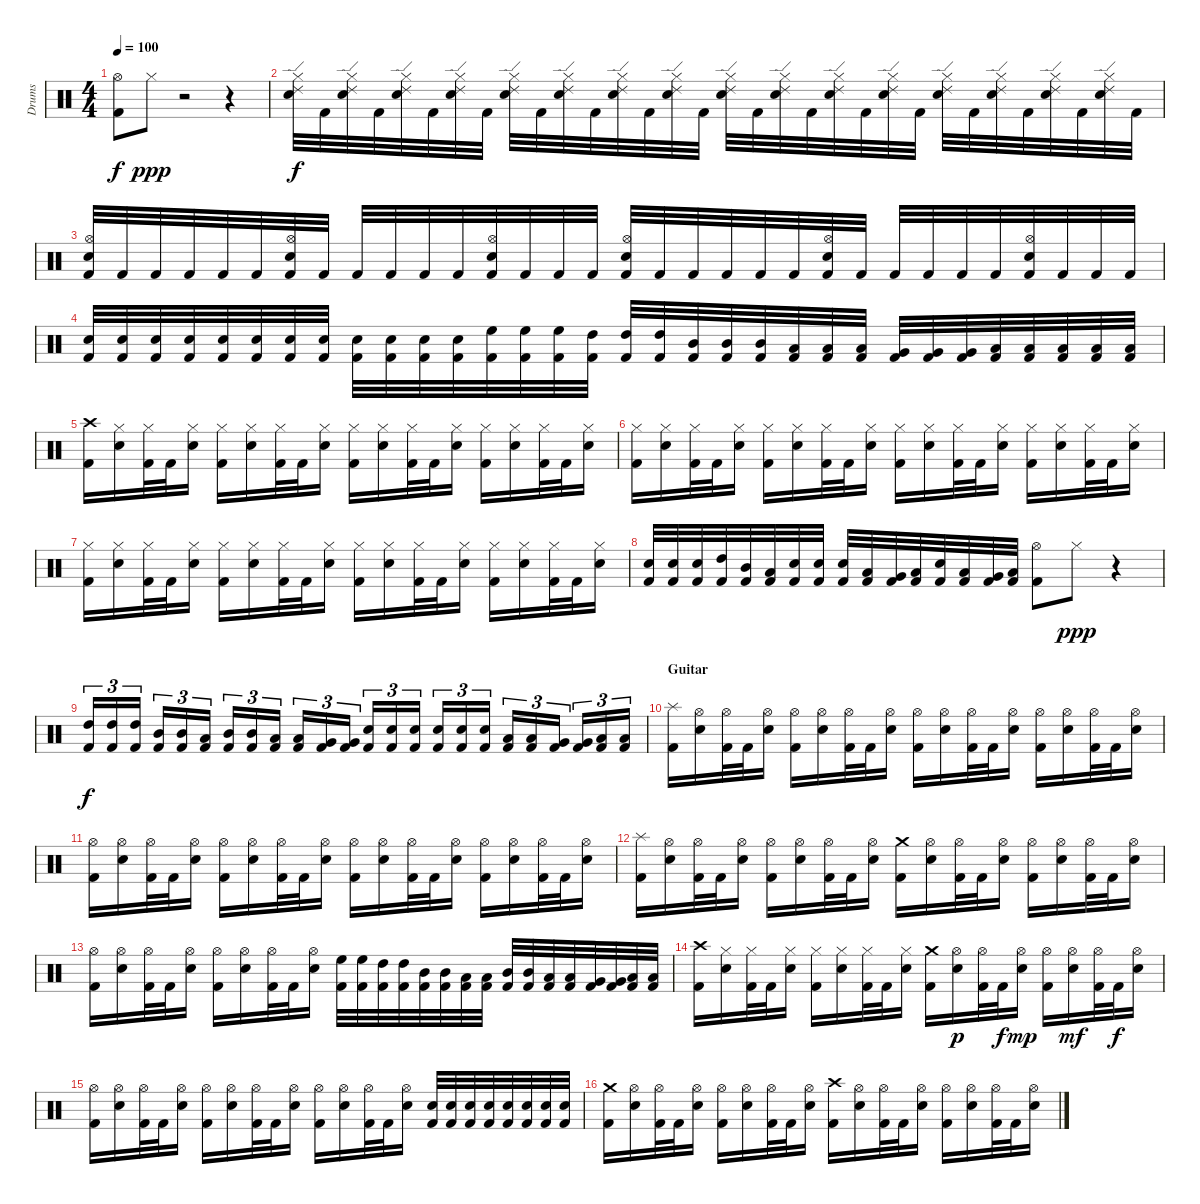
\track ("Drums" "Drums") {instrument percussion}
\staff {score}
\articulation defaults
\ts (4 4)
\section ("" "")
\tempo 100
\clef neutral
\ks c
("Kick (hit) 2" "Hi-Hat (open)").8{dy f} "Hi-Hat (closed)".8{dy ppp} r.2 r.4 |
("Snare (hit) 2" "Hi-Hat (closed)" "Ride (edge) 2").32{dy f} "Kick (hit) 2".32 ("Snare (hit) 2" "Hi-Hat (closed)" "Ride (edge) 2").32 "Kick (hit) 2".32 ("Snare (hit) 2" "Hi-Hat (closed)" "Ride (edge) 2").32 "Kick (hit) 2".32 ("Snare (hit) 2" "Hi-Hat (closed)" "Ride (edge) 2").32 "Kick (hit) 2".32 ("Snare (hit) 2" "Hi-Hat (closed)" "Ride (edge) 2").32 "Kick (hit) 2".32 ("Snare (hit) 2" "Hi-Hat (closed)" "Ride (edge) 2").32 "Kick (hit) 2".32 ("Snare (hit) 2" "Hi-Hat (closed)" "Ride (edge) 2").32 "Kick (hit) 2".32 ("Snare (hit) 2" "Hi-Hat (closed)" "Ride (edge) 2").32 "Kick (hit) 2".32 ("Snare (hit) 2" "Hi-Hat (closed)" "Ride (edge) 2").32 "Kick (hit) 2".32 ("Snare (hit) 2" "Hi-Hat (closed)" "Ride (edge) 2").32 "Kick (hit) 2".32 ("Snare (hit) 2" "Hi-Hat (closed)" "Ride (edge) 2").32 "Kick (hit) 2".32 ("Snare (hit) 2" "Hi-Hat (closed)" "Ride (edge) 2").32 "Kick (hit) 2".32 ("Snare (hit) 2" "Hi-Hat (closed)" "Ride (edge) 2").32 "Kick (hit) 2".32 ("Snare (hit) 2" "Hi-Hat (closed)" "Ride (edge) 2").32 "Kick (hit) 2".32 ("Snare (hit) 2" "Hi-Hat (closed)" "Ride (edge) 2").32 "Kick (hit) 2".32 ("Snare (hit) 2" "Hi-Hat (closed)" "Ride (edge) 2").32 "Kick (hit) 2".32 |
("Kick (hit) 2" "Snare (hit) 2" "Hi-Hat (open)").32 "Kick (hit) 2".32 "Kick (hit) 2".32 "Kick (hit) 2".32 "Kick (hit) 2".32 "Kick (hit) 2".32 ("Kick (hit) 2" "Snare (hit) 2" "Hi-Hat (open)").32 "Kick (hit) 2".32 "Kick (hit) 2".32 "Kick (hit) 2".32 "Kick (hit) 2".32 "Kick (hit) 2".32 ("Kick (hit) 2" "Snare (hit) 2" "Hi-Hat (open)").32 "Kick (hit) 2".32 "Kick (hit) 2".32 "Kick (hit) 2".32 ("Kick (hit) 2" "Snare (hit) 2" "Hi-Hat (open)").32 "Kick (hit) 2".32 "Kick (hit) 2".32 "Kick (hit) 2".32 "Kick (hit) 2".32 "Kick (hit) 2".32 ("Kick (hit) 2" "Snare (hit) 2" "Hi-Hat (open)").32 "Kick (hit) 2".32 "Kick (hit) 2".32 "Kick (hit) 2".32 "Kick (hit) 2".32 "Kick (hit) 2".32 ("Kick (hit) 2" "Snare (hit) 2" "Hi-Hat (open)").32 "Kick (hit) 2".32 "Kick (hit) 2".32 "Kick (hit) 2".32 |
("Kick (hit) 2" "Snare (hit) 2").32 ("Kick (hit) 2" "Snare (hit) 2").32 ("Kick (hit) 2" "Snare (hit) 2").32 ("Kick (hit) 2" "Snare (hit) 2").32 ("Kick (hit) 2" "Snare (hit) 2").32 ("Kick (hit) 2" "Snare (hit) 2").32 ("Kick (hit) 2" "Snare (hit) 2").32 ("Kick (hit) 2" "Snare (hit) 2").32 ("Kick (hit) 2" "Snare (hit) 2").32 ("Kick (hit) 2" "Snare (hit) 2").32 ("Kick (hit) 2" "Snare (hit) 2").32 ("Kick (hit) 2" "Snare (hit) 2").32 ("Kick (hit) 2" "High Floor Tom (hit)").32 ("Kick (hit) 2" "High Floor Tom (hit)").32 ("Kick (hit) 2" "High Floor Tom (hit)").32 ("Kick (hit) 2" "High Tom (hit)").32 ("Kick (hit) 2" "High Tom (hit)").32 ("Kick (hit) 2" "High Tom (hit)").32 ("Kick (hit) 2" "Mid Tom (hit)").32 ("Kick (hit) 2" "Mid Tom (hit)").32 ("Kick (hit) 2" "Mid Tom (hit)").32 ("Kick (hit) 2" "Low Tom (hit)").32 ("Kick (hit) 2" "Low Tom (hit)").32 ("Kick (hit) 2" "Low Tom (hit)").32 ("Kick (hit) 2" "Very Low Tom (hit)").32 ("Kick (hit) 2" "Very Low Tom (hit)").32 ("Kick (hit) 2" "Very Low Tom (hit)").32 ("Kick (hit) 2" "Low Floor Tom (hit)").32 ("Kick (hit) 2" "Low Floor Tom (hit)").32 ("Kick (hit) 2" "Low Floor Tom (hit)").32 ("Kick (hit) 2" "Low Floor Tom (hit)").32 ("Kick (hit) 2" "Low Floor Tom (hit)").32 |
("Kick (hit) 2" "Crash high (hit)").16 ("Snare (hit) 2" "Hi-Hat (closed)").16 ("Kick (hit) 2" "Hi-Hat (closed)").32 "Kick (hit) 2".32 ("Snare (hit) 2" "Hi-Hat (closed)").16 ("Kick (hit) 2" "Hi-Hat (closed)").16 ("Snare (hit) 2" "Hi-Hat (closed)").16 ("Kick (hit) 2" "Hi-Hat (closed)").32 "Kick (hit) 2".32 ("Snare (hit) 2" "Hi-Hat (closed)").16 ("Kick (hit) 2" "Hi-Hat (closed)").16 ("Snare (hit) 2" "Hi-Hat (closed)").16 ("Kick (hit) 2" "Hi-Hat (closed)").32 "Kick (hit) 2".32 ("Snare (hit) 2" "Hi-Hat (closed)").16 ("Kick (hit) 2" "Hi-Hat (closed)").16 ("Snare (hit) 2" "Hi-Hat (closed)").16 ("Kick (hit) 2" "Hi-Hat (closed)").32 "Kick (hit) 2".32 ("Snare (hit) 2" "Hi-Hat (closed)").16 |
("Kick (hit) 2" "Hi-Hat (closed)").16 ("Snare (hit) 2" "Hi-Hat (closed)").16 ("Kick (hit) 2" "Hi-Hat (closed)").32 "Kick (hit) 2".32 ("Snare (hit) 2" "Hi-Hat (closed)").16 ("Kick (hit) 2" "Hi-Hat (closed)").16 ("Snare (hit) 2" "Hi-Hat (closed)").16 ("Kick (hit) 2" "Hi-Hat (closed)").32 "Kick (hit) 2".32 ("Snare (hit) 2" "Hi-Hat (closed)").16 ("Kick (hit) 2" "Hi-Hat (closed)").16 ("Snare (hit) 2" "Hi-Hat (closed)").16 ("Kick (hit) 2" "Hi-Hat (closed)").32 "Kick (hit) 2".32 ("Snare (hit) 2" "Hi-Hat (closed)").16 ("Kick (hit) 2" "Hi-Hat (closed)").16 ("Snare (hit) 2" "Hi-Hat (closed)").16 ("Kick (hit) 2" "Hi-Hat (closed)").32 "Kick (hit) 2".32 ("Snare (hit) 2" "Hi-Hat (closed)").16 |
("Kick (hit) 2" "Hi-Hat (closed)").16 ("Snare (hit) 2" "Hi-Hat (closed)").16 ("Kick (hit) 2" "Hi-Hat (closed)").32 "Kick (hit) 2".32 ("Snare (hit) 2" "Hi-Hat (closed)").16 ("Kick (hit) 2" "Hi-Hat (closed)").16 ("Snare (hit) 2" "Hi-Hat (closed)").16 ("Kick (hit) 2" "Hi-Hat (closed)").32 "Kick (hit) 2".32 ("Snare (hit) 2" "Hi-Hat (closed)").16 ("Kick (hit) 2" "Hi-Hat (closed)").16 ("Snare (hit) 2" "Hi-Hat (closed)").16 ("Kick (hit) 2" "Hi-Hat (closed)").32 "Kick (hit) 2".32 ("Snare (hit) 2" "Hi-Hat (closed)").16 ("Kick (hit) 2" "Hi-Hat (closed)").16 ("Snare (hit) 2" "Hi-Hat (closed)").16 ("Kick (hit) 2" "Hi-Hat (closed)").32 "Kick (hit) 2".32 ("Snare (hit) 2" "Hi-Hat (closed)").16 |
("Kick (hit) 2" "Snare (hit) 2").32 ("Kick (hit) 2" "Snare (hit) 2").32 ("Kick (hit) 2" "Snare (hit) 2").32 ("Kick (hit) 2" "High Tom (hit)").32 ("Kick (hit) 2" "Mid Tom (hit)").32 ("Kick (hit) 2" "Low Tom (hit)").32 ("Kick (hit) 2" "Snare (hit) 2").32 ("Kick (hit) 2" "Snare (hit) 2").32 ("Kick (hit) 2" "Snare (hit) 2").32 ("Kick (hit) 2" "Low Tom (hit)").32 ("Kick (hit) 2" "Very Low Tom (hit)").32 ("Kick (hit) 2" "Low Floor Tom (hit)").32 ("Kick (hit) 2" "Snare (hit) 2").32 ("Kick (hit) 2" "Low Tom (hit)").32 ("Kick (hit) 2" "Very Low Tom (hit)").32 ("Kick (hit) 2" "Low Floor Tom (hit)").32 ("Kick (hit) 2" "Hi-Hat (open)").8 "Hi-Hat (closed)".8{dy ppp} r.4 |
("Kick (hit) 2" "High Tom (hit)").16{tu (3 2) dy f} ("Kick (hit) 2" "High Tom (hit)").16{tu (3 2)} ("Kick (hit) 2" "High Tom (hit)").16{tu (3 2)} ("Kick (hit) 2" "Mid Tom (hit)").16{tu (3 2)} ("Kick (hit) 2" "Mid Tom (hit)").16{tu (3 2)} ("Kick (hit) 2" "Low Tom (hit)").16{tu (3 2)} ("Kick (hit) 2" "Mid Tom (hit)").16{tu (3 2)} ("Kick (hit) 2" "Mid Tom (hit)").16{tu (3 2)} ("Kick (hit) 2" "Low Tom (hit)").16{tu (3 2)} ("Kick (hit) 2" "Low Tom (hit)").16{tu (3 2)} ("Kick (hit) 2" "Very Low Tom (hit)").16{tu (3 2)} ("Kick (hit) 2" "Very Low Tom (hit)").16{tu (3 2)} ("Kick (hit) 2" "Snare (hit) 2").16{tu (3 2)} ("Kick (hit) 2" "Snare (hit) 2").16{tu (3 2)} ("Kick (hit) 2" "Snare (hit) 2").16{tu (3 2)} ("Kick (hit) 2" "Snare (hit) 2").16{tu (3 2)} ("Kick (hit) 2" "Snare (hit) 2").16{tu (3 2)} ("Kick (hit) 2" "Snare (hit) 2").16{tu (3 2)} ("Kick (hit) 2" "Low Tom (hit)").16{tu (3 2)} ("Kick (hit) 2" "Low Tom (hit)").16{tu (3 2)} ("Kick (hit) 2" "Very Low Tom (hit)").16{tu (3 2)} ("Kick (hit) 2" "Very Low Tom (hit)").16{tu (3 2)} ("Kick (hit) 2" "Low Floor Tom (hit)").16{tu (3 2)} ("Kick (hit) 2" "Low Floor Tom (hit)").16{tu (3 2)} |
\section ("" "Guitar ")
("Kick (hit) 2" "Splash (hit)").16 ("Snare (hit) 2" "Hi-Hat (open)").16 ("Kick (hit) 2" "Hi-Hat (open)").32 "Kick (hit) 2".32 ("Snare (hit) 2" "Hi-Hat (open)").16 ("Kick (hit) 2" "Hi-Hat (open)").16 ("Snare (hit) 2" "Hi-Hat (open)").16 ("Kick (hit) 2" "Hi-Hat (open)").32 "Kick (hit) 2".32 ("Snare (hit) 2" "Hi-Hat (open)").16 ("Kick (hit) 2" "Hi-Hat (open)").16 ("Snare (hit) 2" "Hi-Hat (open)").16 ("Kick (hit) 2" "Hi-Hat (open)").32 "Kick (hit) 2".32 ("Snare (hit) 2" "Hi-Hat (open)").16 ("Kick (hit) 2" "Hi-Hat (open)").16 ("Snare (hit) 2" "Hi-Hat (open)").16 ("Kick (hit) 2" "Hi-Hat (open)").32 "Kick (hit) 2".32 ("Snare (hit) 2" "Hi-Hat (open)").16 |
("Kick (hit) 2" "Hi-Hat (open)").16 ("Snare (hit) 2" "Hi-Hat (open)").16 ("Kick (hit) 2" "Hi-Hat (open)").32 "Kick (hit) 2".32 ("Snare (hit) 2" "Hi-Hat (open)").16 ("Kick (hit) 2" "Hi-Hat (open)").16 ("Snare (hit) 2" "Hi-Hat (open)").16 ("Kick (hit) 2" "Hi-Hat (open)").32 "Kick (hit) 2".32 ("Snare (hit) 2" "Hi-Hat (open)").16 ("Kick (hit) 2" "Hi-Hat (open)").16 ("Snare (hit) 2" "Hi-Hat (open)").16 ("Kick (hit) 2" "Hi-Hat (open)").32 "Kick (hit) 2".32 ("Snare (hit) 2" "Hi-Hat (open)").16 ("Kick (hit) 2" "Hi-Hat (open)").16 ("Snare (hit) 2" "Hi-Hat (open)").16 ("Kick (hit) 2" "Hi-Hat (open)").32 "Kick (hit) 2".32 ("Snare (hit) 2" "Hi-Hat (open)").16 |
("Kick (hit) 2" "Splash (hit)").16 ("Snare (hit) 2" "Hi-Hat (open)").16 ("Kick (hit) 2" "Hi-Hat (open)").32 "Kick (hit) 2".32 ("Snare (hit) 2" "Hi-Hat (open)").16 ("Kick (hit) 2" "Hi-Hat (open)").16 ("Snare (hit) 2" "Hi-Hat (open)").16 ("Kick (hit) 2" "Hi-Hat (open)").32 "Kick (hit) 2".32 ("Snare (hit) 2" "Hi-Hat (open)").16 ("Kick (hit) 2" "Crash medium (hit)").16 ("Snare (hit) 2" "Hi-Hat (open)").16 ("Kick (hit) 2" "Hi-Hat (open)").32 "Kick (hit) 2".32 ("Snare (hit) 2" "Hi-Hat (open)").16 ("Kick (hit) 2" "Hi-Hat (open)").16 ("Snare (hit) 2" "Hi-Hat (open)").16 ("Kick (hit) 2" "Hi-Hat (open)").32 "Kick (hit) 2".32 ("Snare (hit) 2" "Hi-Hat (open)").16 |
("Kick (hit) 2" "Hi-Hat (open)").16 ("Snare (hit) 2" "Hi-Hat (open)").16 ("Kick (hit) 2" "Hi-Hat (open)").32 "Kick (hit) 2".32 ("Snare (hit) 2" "Hi-Hat (open)").16 ("Kick (hit) 2" "Hi-Hat (open)").16 ("Snare (hit) 2" "Hi-Hat (open)").16 ("Kick (hit) 2" "Hi-Hat (open)").32 "Kick (hit) 2".32 ("Snare (hit) 2" "Hi-Hat (open)").16 ("Kick (hit) 2" "High Floor Tom (hit)").32 ("Kick (hit) 2" "High Floor Tom (hit)").32 ("Kick (hit) 2" "High Tom (hit)").32 ("Kick (hit) 2" "High Tom (hit)").32 ("Kick (hit) 2" "Mid Tom (hit)").32 ("Kick (hit) 2" "Mid Tom (hit)").32 ("Kick (hit) 2" "Low Tom (hit)").32 ("Kick (hit) 2" "Low Tom (hit)").32 ("Kick (hit) 2" "Mid Tom (hit)").32 ("Kick (hit) 2" "Mid Tom (hit)").32 ("Kick (hit) 2" "Low Tom (hit)").32 ("Kick (hit) 2" "Low Tom (hit)").32 ("Kick (hit) 2" "Very Low Tom (hit)").32 ("Kick (hit) 2" "Very Low Tom (hit)").32 ("Kick (hit) 2" "Low Floor Tom (hit)").32 ("Kick (hit) 2" "Low Floor Tom (hit)").32 |
("Kick (hit) 2" "Crash high (hit)").16 ("Snare (hit) 2" "Hi-Hat (closed)").16 ("Kick (hit) 2" "Hi-Hat (closed)").32 "Kick (hit) 2".32 ("Snare (hit) 2" "Hi-Hat (closed)").16 ("Kick (hit) 2" "Hi-Hat (closed)").16 ("Snare (hit) 2" "Hi-Hat (closed)").16 ("Kick (hit) 2" "Hi-Hat (closed)").32 "Kick (hit) 2".32 ("Snare (hit) 2" "Hi-Hat (closed)").16 ("Kick (hit) 2" "Crash medium (hit)").16 ("Snare (hit) 2" "Hi-Hat (open)").16{dy p} ("Kick (hit) 2" "Hi-Hat (open)").32 "Kick (hit) 2".32{dy f} ("Snare (hit) 2" "Hi-Hat (open)").16{dy mp} ("Kick (hit) 2" "Hi-Hat (open)").16 ("Snare (hit) 2" "Hi-Hat (open)").16{dy mf} ("Kick (hit) 2" "Hi-Hat (open)").32 "Kick (hit) 2".32{dy f} ("Snare (hit) 2" "Hi-Hat (open)").16 |
("Kick (hit) 2" "Hi-Hat (open)").16 ("Snare (hit) 2" "Hi-Hat (open)").16 ("Kick (hit) 2" "Hi-Hat (open)").32 "Kick (hit) 2".32 ("Snare (hit) 2" "Hi-Hat (open)").16 ("Kick (hit) 2" "Hi-Hat (open)").16 ("Snare (hit) 2" "Hi-Hat (open)").16 ("Kick (hit) 2" "Hi-Hat (open)").32 "Kick (hit) 2".32 ("Snare (hit) 2" "Hi-Hat (open)").16 ("Kick (hit) 2" "Hi-Hat (open)").16 ("Snare (hit) 2" "Hi-Hat (open)").16 ("Kick (hit) 2" "Hi-Hat (open)").32 "Kick (hit) 2".32 ("Snare (hit) 2" "Hi-Hat (open)").16 ("Kick (hit) 2" "Snare (hit) 2").32 ("Kick (hit) 2" "Snare (hit) 2").32 ("Kick (hit) 2" "Snare (hit) 2").32 ("Kick (hit) 2" "Snare (hit) 2").32 ("Kick (hit) 2" "Snare (hit) 2").32 ("Kick (hit) 2" "Snare (hit) 2").32 ("Kick (hit) 2" "Snare (hit) 2").32 ("Kick (hit) 2" "Snare (hit) 2").32 |
("Kick (hit) 2" "Crash medium (hit)").16 ("Snare (hit) 2" "Hi-Hat (open)").16 ("Kick (hit) 2" "Hi-Hat (open)").32 "Kick (hit) 2".32 ("Snare (hit) 2" "Hi-Hat (open)").16 ("Kick (hit) 2" "Hi-Hat (open)").16 ("Snare (hit) 2" "Hi-Hat (open)").16 ("Kick (hit) 2" "Hi-Hat (open)").32 "Kick (hit) 2".32 ("Snare (hit) 2" "Hi-Hat (open)").16 ("Kick (hit) 2" "Crash high (hit)").16 ("Snare (hit) 2" "Hi-Hat (open)").16 ("Kick (hit) 2" "Hi-Hat (open)").32 "Kick (hit) 2".32 ("Snare (hit) 2" "Hi-Hat (open)").16 ("Kick (hit) 2" "Hi-Hat (open)").16 ("Snare (hit) 2" "Hi-Hat (open)").16 ("Kick (hit) 2" "Hi-Hat (open)").32 "Kick (hit) 2".32 ("Snare (hit) 2" "Hi-Hat (open)").16
